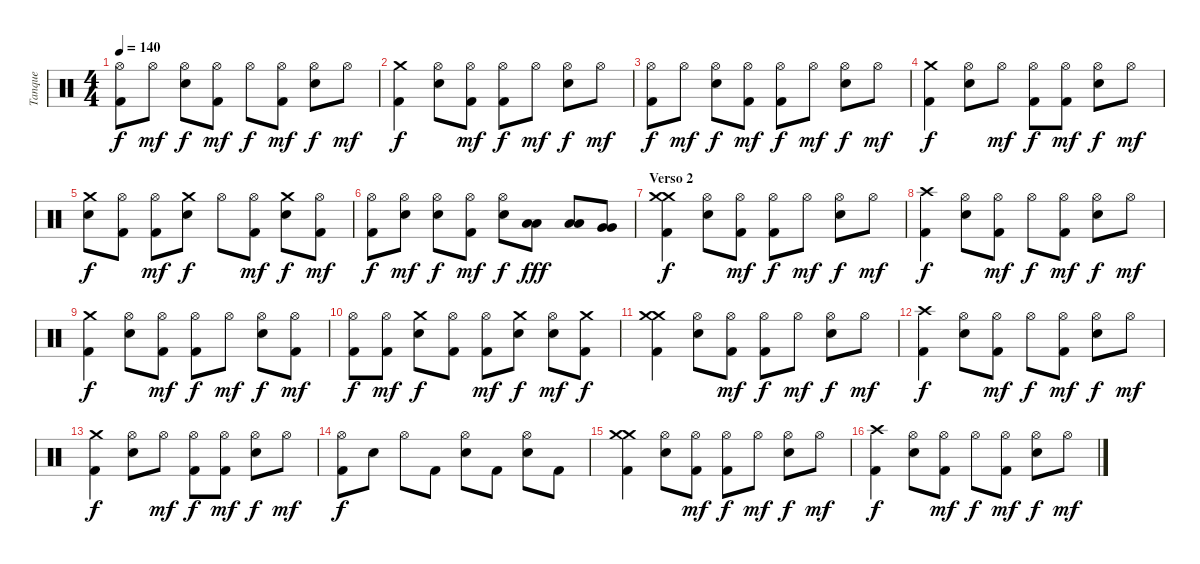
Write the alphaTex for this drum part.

\track ("Tanque" "Tanque") {instrument percussion}
\staff {score}
\articulation defaults
\ts (4 4)
\tempo 140
\clef neutral
\ks c
("Hi-Hat (open)" "Kick (hit) 2").8{dy f} "Hi-Hat (open)".8{dy mf} ("Hi-Hat (open)" "Electric Snare (hit)").8{dy f} ("Hi-Hat (open)" "Kick (hit) 2").8{dy mf} "Hi-Hat (open)".8{dy f} ("Hi-Hat (open)" "Kick (hit) 2").8{dy mf} ("Hi-Hat (open)" "Electric Snare (hit)").8{dy f} "Hi-Hat (open)".8{dy mf} |
("Crash medium (hit)" "Kick (hit) 2").4{dy f} ("Hi-Hat (open)" "Electric Snare (hit)").8 ("Hi-Hat (open)" "Kick (hit) 2").8{dy mf} ("Hi-Hat (open)" "Kick (hit) 2").8{dy f} "Hi-Hat (open)".8{dy mf} ("Hi-Hat (open)" "Electric Snare (hit)").8{dy f} "Hi-Hat (open)".8{dy mf} |
("Hi-Hat (open)" "Kick (hit) 2").8{dy f} "Hi-Hat (open)".8{dy mf} ("Hi-Hat (open)" "Electric Snare (hit)").8{dy f} ("Hi-Hat (open)" "Kick (hit) 2").8{dy mf} ("Hi-Hat (open)" "Kick (hit) 2").8{dy f} "Hi-Hat (open)".8{dy mf} ("Hi-Hat (open)" "Electric Snare (hit)").8{dy f} "Hi-Hat (open)".8{dy mf} |
("Crash medium (hit)" "Kick (hit) 2").4{dy f} ("Hi-Hat (open)" "Electric Snare (hit)").8 "Hi-Hat (open)".8{dy mf} ("Hi-Hat (open)" "Kick (hit) 2").8{dy f} ("Hi-Hat (open)" "Kick (hit) 2").8{dy mf} ("Hi-Hat (open)" "Electric Snare (hit)").8{dy f} "Hi-Hat (open)".8{dy mf} |
("Crash medium (hit)" "Electric Snare (hit)").8{dy f} ("Hi-Hat (open)" "Kick (hit) 2").8 ("Hi-Hat (open)" "Kick (hit) 2").8{dy mf} ("Crash medium (hit)" "Electric Snare (hit)").8{dy f} "Hi-Hat (open)".8 ("Hi-Hat (open)" "Kick (hit) 2").8{dy mf} ("Crash medium (hit)" "Electric Snare (hit)").8{dy f} ("Hi-Hat (open)" "Kick (hit) 2").8{dy mf} |
("Hi-Hat (open)" "Kick (hit) 2").8{dy f} ("Hi-Hat (open)" "Electric Snare (hit)").8{dy mf} ("Hi-Hat (open)" "Electric Snare (hit)").8{dy f} ("Hi-Hat (open)" "Kick (hit) 2").8{dy mf} ("Hi-Hat (open)" "Electric Snare (hit)").8{dy f} ("Low Tom (hit)" "Low Tom (hit)").8{dy fff} ("Low Tom (hit)" "Low Tom (hit)").8 ("Very Low Tom (hit)" "Very Low Tom (hit)").8 |
\section ("" "Verso 2")
("Crash medium (hit)" "Crash medium (hit)" "Kick (hit) 2").4{dy f} ("Hi-Hat (open)" "Electric Snare (hit)").8 ("Hi-Hat (open)" "Kick (hit) 2").8{dy mf} ("Hi-Hat (open)" "Kick (hit) 2").8{dy f} "Hi-Hat (open)".8{dy mf} ("Hi-Hat (open)" "Electric Snare (hit)").8{dy f} "Hi-Hat (open)".8{dy mf} |
("Crash high (hit)" "Kick (hit) 2").4{dy f} ("Hi-Hat (open)" "Electric Snare (hit)").8 ("Hi-Hat (open)" "Kick (hit) 2").8{dy mf} "Hi-Hat (open)".8{dy f} ("Hi-Hat (open)" "Kick (hit) 2").8{dy mf} ("Hi-Hat (open)" "Electric Snare (hit)").8{dy f} "Hi-Hat (open)".8{dy mf} |
("Crash medium (hit)" "Kick (hit) 2").4{dy f} ("Hi-Hat (open)" "Electric Snare (hit)").8 ("Hi-Hat (open)" "Kick (hit) 2").8{dy mf} ("Hi-Hat (open)" "Kick (hit) 2").8{dy f} "Hi-Hat (open)".8{dy mf} ("Hi-Hat (open)" "Electric Snare (hit)").8{dy f} ("Hi-Hat (open)" "Kick (hit) 2").8{dy mf} |
("Hi-Hat (open)" "Kick (hit) 2").8{dy f} ("Hi-Hat (open)" "Kick (hit) 2").8{dy mf} ("Crash medium (hit)" "Electric Snare (hit)").8{dy f} ("Hi-Hat (open)" "Kick (hit) 2").8 ("Hi-Hat (open)" "Kick (hit) 2").8{dy mf} ("Crash medium (hit)" "Electric Snare (hit)").8{dy f} ("Hi-Hat (open)" "Electric Snare (hit)").8{dy mf} ("Crash medium (hit)" "Kick (hit) 2").8{dy f} |
("Crash medium (hit)" "Crash medium (hit)" "Kick (hit) 2").4 ("Hi-Hat (open)" "Electric Snare (hit)").8 ("Hi-Hat (open)" "Kick (hit) 2").8{dy mf} ("Hi-Hat (open)" "Kick (hit) 2").8{dy f} "Hi-Hat (open)".8{dy mf} ("Hi-Hat (open)" "Electric Snare (hit)").8{dy f} "Hi-Hat (open)".8{dy mf} |
("Crash high (hit)" "Kick (hit) 2").4{dy f} ("Hi-Hat (open)" "Electric Snare (hit)").8 ("Hi-Hat (open)" "Kick (hit) 2").8{dy mf} "Hi-Hat (open)".8{dy f} ("Hi-Hat (open)" "Kick (hit) 2").8{dy mf} ("Hi-Hat (open)" "Electric Snare (hit)").8{dy f} "Hi-Hat (open)".8{dy mf} |
("Crash medium (hit)" "Kick (hit) 2").4{dy f} ("Hi-Hat (open)" "Electric Snare (hit)").8 "Hi-Hat (open)".8{dy mf} ("Hi-Hat (open)" "Kick (hit) 2").8{dy f} ("Hi-Hat (open)" "Kick (hit) 2").8{dy mf} ("Hi-Hat (open)" "Electric Snare (hit)").8{dy f} "Hi-Hat (open)".8{dy mf} |
("Hi-Hat (open)" "Kick (hit) 2").8{dy f} "Electric Snare (hit)".8 "Hi-Hat (open)".8 "Kick (hit) 2".8 ("Hi-Hat (open)" "Electric Snare (hit)").8 "Kick (hit) 2".8 ("Hi-Hat (open)" "Electric Snare (hit)").8 "Kick (hit) 2".8 |
("Crash medium (hit)" "Crash medium (hit)" "Kick (hit) 2").4 ("Hi-Hat (open)" "Electric Snare (hit)").8 ("Hi-Hat (open)" "Kick (hit) 2").8{dy mf} ("Hi-Hat (open)" "Kick (hit) 2").8{dy f} "Hi-Hat (open)".8{dy mf} ("Hi-Hat (open)" "Electric Snare (hit)").8{dy f} "Hi-Hat (open)".8{dy mf} |
("Crash high (hit)" "Kick (hit) 2").4{dy f} ("Hi-Hat (open)" "Electric Snare (hit)").8 ("Hi-Hat (open)" "Kick (hit) 2").8{dy mf} "Hi-Hat (open)".8{dy f} ("Hi-Hat (open)" "Kick (hit) 2").8{dy mf} ("Hi-Hat (open)" "Electric Snare (hit)").8{dy f} "Hi-Hat (open)".8{dy mf}
